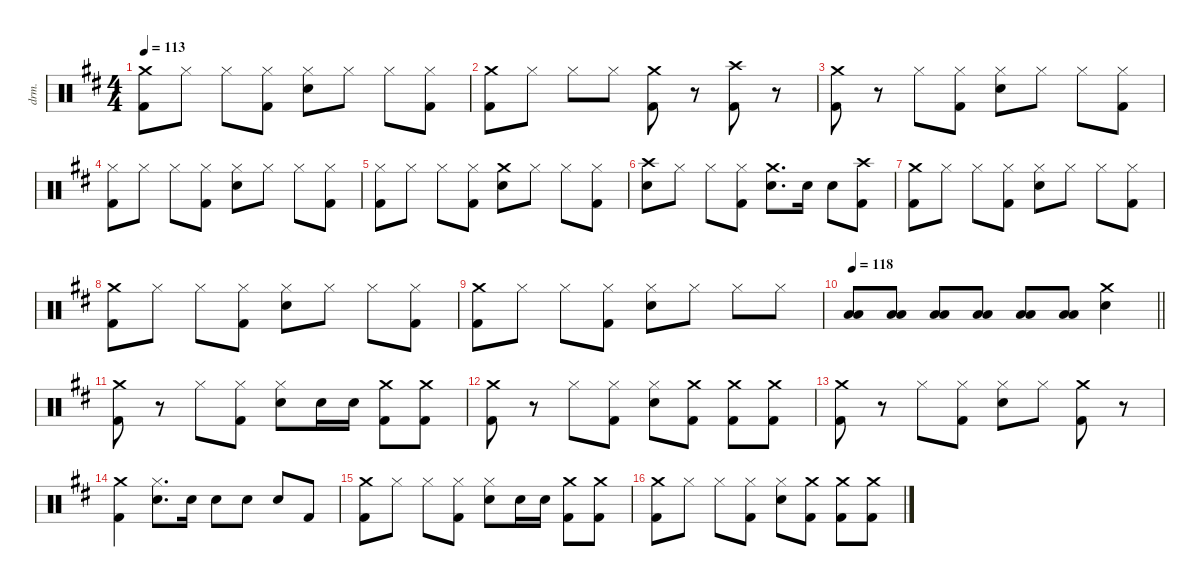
\defaultSystemsLayout 4
\hideDynamics
\bracketExtendMode nobrackets
\otherSystemsTrackNameOrientation horizontal
\track ("Lars - Drums" "drm.") {defaultSystemsLayout 4 instrument percussion}
\staff {score}
\articulation defaults
\ts (4 4)
\tempo 113
\clef neutral
\ks bminor
("Crash medium (hit)"{acc forcenatural} "Kick (hit) 2"{acc forcenatural}).8{dy f beam Down} "Hi-Hat (closed)"{acc forcenatural}.8{beam Down} "Hi-Hat (closed)"{acc forcenatural}.8{beam Down} ("Hi-Hat (closed)"{acc forcenatural} "Kick (hit) 2"{acc forcenatural}).8{beam Down} ("Hi-Hat (closed)"{acc forcenatural} "Snare (hit) 2"{acc forcenatural}).8{beam Down} "Hi-Hat (closed)"{acc forcenatural}.8{beam Down} "Hi-Hat (closed)"{acc forcenatural}.8{beam Down} ("Hi-Hat (closed)"{acc forcenatural} "Kick (hit) 2"{acc forcenatural}).8{beam Down} |
("Crash medium (hit)"{acc forcenatural} "Kick (hit) 2"{acc forcenatural}).8{beam Down} "Hi-Hat (closed)"{acc forcenatural}.8{beam Down} "Hi-Hat (closed)"{acc forcenatural}.8{beam Down} "Hi-Hat (closed)"{acc forcenatural}.8{beam Down} ("Crash medium (hit)"{acc forcenatural} "Kick (hit) 2"{acc forcenatural}).8{beam Down} r.8{beam Down} ("Crash high (hit)"{acc forcenatural} "Kick (hit) 2"{acc forcenatural}).8{beam Down} r.8{beam Down} |
("Crash medium (hit)"{acc forcenatural} "Kick (hit) 2"{acc forcenatural}).8{beam Down} r.8{beam Down} "Hi-Hat (closed)"{acc forcenatural}.8{beam Down} ("Hi-Hat (closed)"{acc forcenatural} "Kick (hit) 2"{acc forcenatural}).8{beam Down} ("Hi-Hat (closed)"{acc forcenatural} "Snare (hit) 2"{acc forcenatural}).8{beam Down} "Hi-Hat (closed)"{acc forcenatural}.8{beam Down} "Hi-Hat (closed)"{acc forcenatural}.8{beam Down} ("Hi-Hat (closed)"{acc forcenatural} "Kick (hit) 2"{acc forcenatural}).8{beam Down} |
("Hi-Hat (closed)"{acc forcenatural} "Kick (hit) 2"{acc forcenatural}).8{beam Down} "Hi-Hat (closed)"{acc forcenatural}.8{beam Down} "Hi-Hat (closed)"{acc forcenatural}.8{beam Down} ("Hi-Hat (closed)"{acc forcenatural} "Kick (hit) 2"{acc forcenatural}).8{beam Down} ("Hi-Hat (closed)"{acc forcenatural} "Snare (hit) 2"{acc forcenatural}).8{beam Down} "Hi-Hat (closed)"{acc forcenatural}.8{beam Down} "Hi-Hat (closed)"{acc forcenatural}.8{beam Down} ("Hi-Hat (closed)"{acc forcenatural} "Kick (hit) 2"{acc forcenatural}).8{beam Down} |
("Hi-Hat (closed)"{acc forcenatural} "Kick (hit) 2"{acc forcenatural}).8{beam Down} "Hi-Hat (closed)"{acc forcenatural}.8{beam Down} "Hi-Hat (closed)"{acc forcenatural}.8{beam Down} ("Hi-Hat (closed)"{acc forcenatural} "Kick (hit) 2"{acc forcenatural}).8{beam Down} ("Crash medium (hit)"{acc forcenatural} "Snare (hit) 2"{acc forcenatural}).8{beam Down} "Hi-Hat (closed)"{acc forcenatural}.8{beam Down} "Hi-Hat (closed)"{acc forcenatural}.8{beam Down} ("Hi-Hat (closed)"{acc forcenatural} "Kick (hit) 2"{acc forcenatural}).8{beam Down} |
("Crash high (hit)"{acc forcenatural} "Snare (hit) 2"{acc forcenatural}).8{beam Down} "Hi-Hat (closed)"{acc forcenatural}.8{beam Down} "Hi-Hat (closed)"{acc forcenatural}.8{beam Down} ("Hi-Hat (closed)"{acc forcenatural} "Kick (hit) 2"{acc forcenatural}).8{beam Down} ("Crash medium (hit)"{acc forcenatural} "Snare (hit) 2"{acc forcenatural}).8{d beam Down} "Snare (hit) 2"{acc forcenatural}.16{beam Down} "Snare (hit) 2"{acc forcenatural}.8{beam Down} ("Crash high (hit)"{acc forcenatural} "Kick (hit) 2"{acc forcenatural}).8{beam Down} |
("Crash medium (hit)"{acc forcenatural} "Kick (hit) 2"{acc forcenatural}).8{beam Down} "Hi-Hat (closed)"{acc forcenatural}.8{beam Down} "Hi-Hat (closed)"{acc forcenatural}.8{beam Down} ("Hi-Hat (closed)"{acc forcenatural} "Kick (hit) 2"{acc forcenatural}).8{beam Down} ("Hi-Hat (closed)"{acc forcenatural} "Snare (hit) 2"{acc forcenatural}).8{beam Down} "Hi-Hat (closed)"{acc forcenatural}.8{beam Down} "Hi-Hat (closed)"{acc forcenatural}.8{beam Down} ("Hi-Hat (closed)"{acc forcenatural} "Kick (hit) 2"{acc forcenatural}).8{beam Down} |
("Crash medium (hit)"{acc forcenatural} "Kick (hit) 2"{acc forcenatural}).8{beam Down} "Hi-Hat (closed)"{acc forcenatural}.8{beam Down} "Hi-Hat (closed)"{acc forcenatural}.8{beam Down} ("Hi-Hat (closed)"{acc forcenatural} "Kick (hit) 2"{acc forcenatural}).8{beam Down} ("Hi-Hat (closed)"{acc forcenatural} "Snare (hit) 2"{acc forcenatural}).8{beam Down} "Hi-Hat (closed)"{acc forcenatural}.8{beam Down} "Hi-Hat (closed)"{acc forcenatural}.8{beam Down} ("Hi-Hat (closed)"{acc forcenatural} "Kick (hit) 2"{acc forcenatural}).8{beam Down} |
("Crash medium (hit)"{acc forcenatural} "Kick (hit) 2"{acc forcenatural}).8{beam Down} "Hi-Hat (closed)"{acc forcenatural}.8{beam Down} "Hi-Hat (closed)"{acc forcenatural}.8{beam Down} ("Hi-Hat (closed)"{acc forcenatural} "Kick (hit) 2"{acc forcenatural}).8{beam Down} ("Hi-Hat (closed)"{acc forcenatural} "Snare (hit) 2"{acc forcenatural}).8{beam Down} "Hi-Hat (closed)"{acc forcenatural}.8{beam Down} "Hi-Hat (closed)"{acc forcenatural}.8{beam Down} "Hi-Hat (closed)"{acc forcenatural}.8{beam Down} |
\tempo 118
\barLineRight lightlight
("Low Tom (hit)"{acc forcenatural} "Low Floor Tom (hit)"{acc forcenatural}).8{beam Up} ("Low Tom (hit)"{acc forcenatural} "Low Floor Tom (hit)"{acc forcenatural}).8{beam Up} ("Low Tom (hit)"{acc forcenatural} "Low Floor Tom (hit)"{acc forcenatural}).8{beam Up} ("Low Tom (hit)"{acc forcenatural} "Low Floor Tom (hit)"{acc forcenatural}).8{beam Up} ("Low Tom (hit)"{acc forcenatural} "Low Floor Tom (hit)"{acc forcenatural}).8{beam Up} ("Low Tom (hit)"{acc forcenatural} "Low Floor Tom (hit)"{acc forcenatural}).8{beam Up} ("Crash medium (hit)"{acc forcenatural} "Snare (hit) 2"{acc forcenatural}).4{beam Down} |
("Crash medium (hit)"{acc forcenatural} "Kick (hit) 2"{acc forcenatural}).8{beam Down} r.8{beam Down} "Hi-Hat (closed)"{acc forcenatural}.8{beam Down} ("Hi-Hat (closed)"{acc forcenatural} "Kick (hit) 2"{acc forcenatural}).8{beam Down} ("Hi-Hat (closed)"{acc forcenatural} "Snare (hit) 2"{acc forcenatural}).8{beam Down} "Snare (hit) 2"{acc forcenatural}.16{beam Down} "Snare (hit) 2"{acc forcenatural}.16{beam Down} ("Crash medium (hit)"{acc forcenatural} "Kick (hit) 2"{acc forcenatural}).8{beam Down} ("Crash medium (hit)"{acc forcenatural} "Kick (hit) 2"{acc forcenatural}).8{beam Down} |
("Crash medium (hit)"{acc forcenatural} "Kick (hit) 2"{acc forcenatural}).8{beam Down} r.8{beam Down} "Hi-Hat (closed)"{acc forcenatural}.8{beam Down} ("Hi-Hat (closed)"{acc forcenatural} "Kick (hit) 2"{acc forcenatural}).8{beam Down} ("Hi-Hat (closed)"{acc forcenatural} "Snare (hit) 2"{acc forcenatural}).8{beam Down} ("Crash medium (hit)"{acc forcenatural} "Kick (hit) 2"{acc forcenatural}).8{beam Down} ("Crash medium (hit)"{acc forcenatural} "Kick (hit) 2"{acc forcenatural}).8{beam Down} ("Crash medium (hit)"{acc forcenatural} "Kick (hit) 2"{acc forcenatural}).8{beam Down} |
("Crash medium (hit)"{acc forcenatural} "Kick (hit) 2"{acc forcenatural}).8{beam Down} r.8{beam Down} "Hi-Hat (closed)"{acc forcenatural}.8{beam Down} ("Hi-Hat (closed)"{acc forcenatural} "Kick (hit) 2"{acc forcenatural}).8{beam Down} ("Hi-Hat (closed)"{acc forcenatural} "Snare (hit) 2"{acc forcenatural}).8{beam Down} "Hi-Hat (closed)"{acc forcenatural}.8{beam Down} ("Crash medium (hit)"{acc forcenatural} "Kick (hit) 2"{acc forcenatural}).8{beam Down} r.8{beam Down} |
("Crash medium (hit)"{acc forcenatural} "Kick (hit) 2"{acc forcenatural}).4{beam Down} ("Hi-Hat (closed)"{acc forcenatural} "Snare (hit) 2"{acc forcenatural}).8{d beam Down} "Snare (hit) 2"{acc forcenatural}.16{beam Down} "Snare (hit) 2"{acc forcenatural}.8{beam Down} "Snare (hit) 2"{acc forcenatural}.8{beam Down} "Snare (hit) 2"{acc forcenatural}.8{beam Up} "Kick (hit) 2"{acc forcenatural}.8{beam Up} |
("Crash medium (hit)"{acc forcenatural} "Kick (hit) 2"{acc forcenatural}).8{beam Down} "Hi-Hat (closed)"{acc forcenatural}.8{beam Down} "Hi-Hat (closed)"{acc forcenatural}.8{beam Down} ("Hi-Hat (closed)"{acc forcenatural} "Kick (hit) 2"{acc forcenatural}).8{beam Down} ("Hi-Hat (closed)"{acc forcenatural} "Snare (hit) 2"{acc forcenatural}).8{beam Down} "Snare (hit) 2"{acc forcenatural}.16{beam Down} "Snare (hit) 2"{acc forcenatural}.16{beam Down} ("Crash medium (hit)"{acc forcenatural} "Kick (hit) 2"{acc forcenatural}).8{beam Down} ("Crash medium (hit)"{acc forcenatural} "Kick (hit) 2"{acc forcenatural}).8{beam Down} |
("Crash medium (hit)"{acc forcenatural} "Kick (hit) 2"{acc forcenatural}).8{beam Down} "Hi-Hat (closed)"{acc forcenatural}.8{beam Down} "Hi-Hat (closed)"{acc forcenatural}.8{beam Down} ("Hi-Hat (closed)"{acc forcenatural} "Kick (hit) 2"{acc forcenatural}).8{beam Down} ("Hi-Hat (closed)"{acc forcenatural} "Snare (hit) 2"{acc forcenatural}).8{beam Down} ("Crash medium (hit)"{acc forcenatural} "Kick (hit) 2"{acc forcenatural}).8{beam Down} ("Crash medium (hit)"{acc forcenatural} "Kick (hit) 2"{acc forcenatural}).8{beam Down} ("Crash medium (hit)"{acc forcenatural} "Kick (hit) 2"{acc forcenatural}).8{beam Down}
